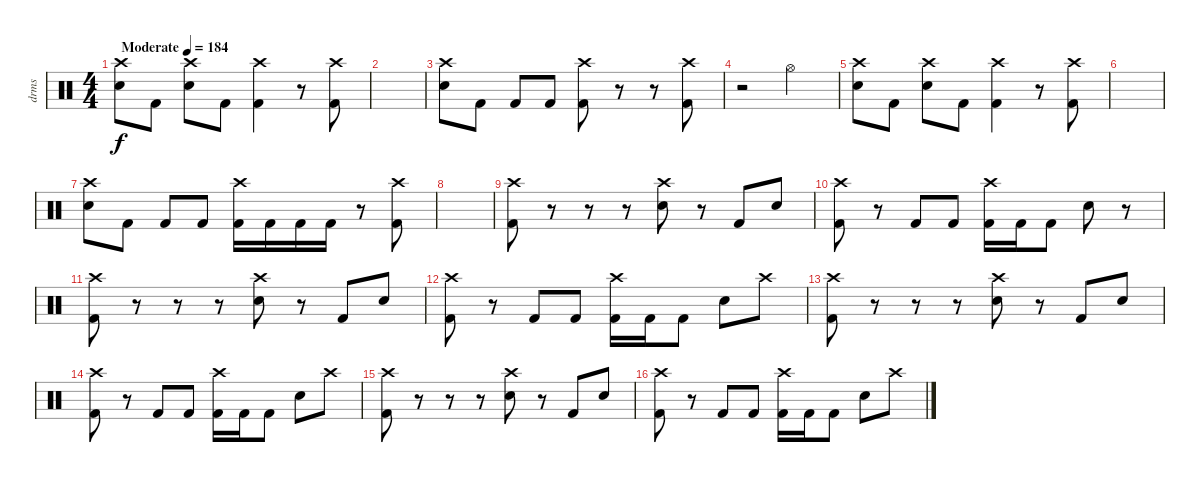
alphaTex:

\track ("drms" "drms") {instrument percussion}
\staff {score}
\articulation defaults
\ts (4 4)
\tempo (184 "Moderate")
\clef neutral
\ks c
("Crash high (hit)" "Snare (hit) 2").8{dy f} "Kick (hit) 2".8 ("Crash high (hit)" "Snare (hit) 2").8 "Kick (hit) 2".8 ("Kick (hit) 2" "Crash high (hit)").4 r.8 ("Crash high (hit)" "Kick (hit) 2").8 |
|
("Crash high (hit)" "Snare (hit) 2").8 "Kick (hit) 2".8 "Kick (hit) 2".8 "Kick (hit) 2".8 ("Crash high (hit)" "Kick (hit) 2").8 r.8 r.8 ("Crash high (hit)" "Kick (hit) 2").8 |
r.2 "Hi-Hat (open)".2 |
("Crash high (hit)" "Snare (hit) 2").8 "Kick (hit) 2".8 ("Crash high (hit)" "Snare (hit) 2").8 "Kick (hit) 2".8 ("Kick (hit) 2" "Crash high (hit)").4 r.8 ("Crash high (hit)" "Kick (hit) 2").8 |
|
("Crash high (hit)" "Snare (hit) 2").8 "Kick (hit) 2".8 "Kick (hit) 2".8 "Kick (hit) 2".8 ("Crash high (hit)" "Kick (hit) 2").16 "Kick (hit) 2".16 "Kick (hit) 2".16 "Kick (hit) 2".16 r.8 ("Crash high (hit)" "Kick (hit) 2").8 |
|
("Crash high (hit)" "Kick (hit) 2").8 r.8 r.8 r.8 ("Crash high (hit)" "Snare (hit) 2").8 r.8 "Kick (hit) 2".8 "Snare (hit) 2".8 |
("Crash high (hit)" "Kick (hit) 2").8 r.8 "Kick (hit) 2".8 "Kick (hit) 2".8 ("Crash high (hit)" "Kick (hit) 2").16 "Kick (hit) 2".16 "Kick (hit) 2".8 "Snare (hit) 2".8 r.8 |
("Crash high (hit)" "Kick (hit) 2").8 r.8 r.8 r.8 ("Crash high (hit)" "Snare (hit) 2").8 r.8 "Kick (hit) 2".8 "Snare (hit) 2".8 |
("Crash high (hit)" "Kick (hit) 2").8 r.8 "Kick (hit) 2".8 "Kick (hit) 2".8 ("Crash high (hit)" "Kick (hit) 2").16 "Kick (hit) 2".16 "Kick (hit) 2".8 "Snare (hit) 2".8 "Crash high (hit)".8 |
("Crash high (hit)" "Kick (hit) 2").8 r.8 r.8 r.8 ("Crash high (hit)" "Snare (hit) 2").8 r.8 "Kick (hit) 2".8 "Snare (hit) 2".8 |
("Crash high (hit)" "Kick (hit) 2").8 r.8 "Kick (hit) 2".8 "Kick (hit) 2".8 ("Crash high (hit)" "Kick (hit) 2").16 "Kick (hit) 2".16 "Kick (hit) 2".8 "Snare (hit) 2".8 "Crash high (hit)".8 |
("Crash high (hit)" "Kick (hit) 2").8 r.8 r.8 r.8 ("Crash high (hit)" "Snare (hit) 2").8 r.8 "Kick (hit) 2".8 "Snare (hit) 2".8 |
("Crash high (hit)" "Kick (hit) 2").8 r.8 "Kick (hit) 2".8 "Kick (hit) 2".8 ("Crash high (hit)" "Kick (hit) 2").16 "Kick (hit) 2".16 "Kick (hit) 2".8 "Snare (hit) 2".8 "Crash high (hit)".8
